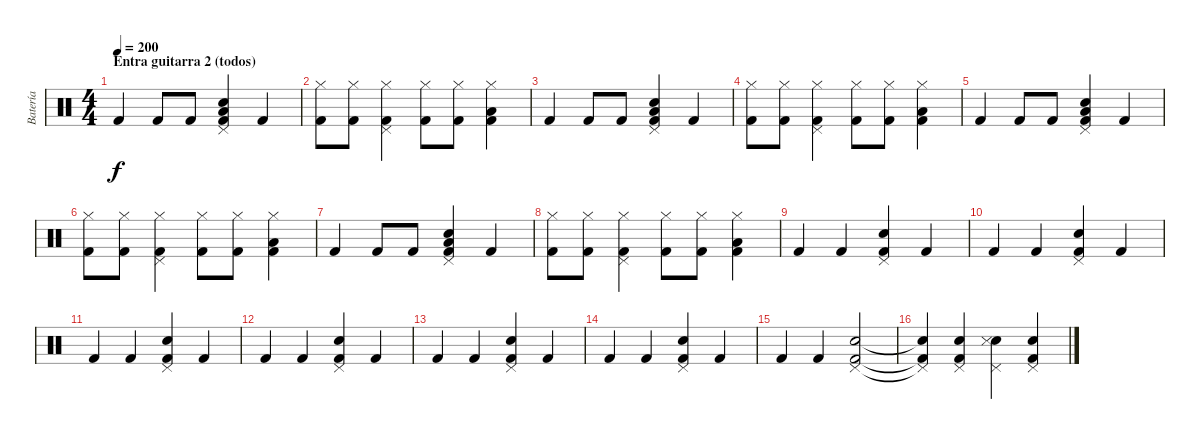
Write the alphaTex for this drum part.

\track ("Batería" "Batería") {instrument percussion}
\staff {score}
\articulation defaults
\ts (4 4)
\section ("" "Entra guitarra 2 (todos)")
\tempo 200
\clef neutral
\ks c "Kick (hit) 2".4{dy f} "Kick (hit) 2".8 "Kick (hit) 2".8
("Low Floor Tom (hit)" "Electric Snare (hit)" "Pedal Hi-Hat (hit)" "Kick (hit) 2").4 "Kick (hit) 2".4 |
("Hi-Hat (closed)" "Kick (hit) 2").8 ("Hi-Hat (closed)" "Kick (hit) 2").8 ("Hi-Hat (closed)" "Pedal Hi-Hat (hit)" "Kick (hit) 2").4 ("Hi-Hat (closed)" "Kick (hit) 2").8 ("Hi-Hat (closed)" "Kick (hit) 2").8 ("Hi-Hat (closed)" "Low Floor Tom (hit)" "Kick (hit) 2").4 |
"Kick (hit) 2".4 "Kick (hit) 2".8 "Kick (hit) 2".8 ("Low Floor Tom (hit)" "Electric Snare (hit)" "Pedal Hi-Hat (hit)" "Kick (hit) 2").4 "Kick (hit) 2".4 |
("Hi-Hat (closed)" "Kick (hit) 2").8 ("Hi-Hat (closed)" "Kick (hit) 2").8 ("Hi-Hat (closed)" "Pedal Hi-Hat (hit)" "Kick (hit) 2").4 ("Hi-Hat (closed)" "Kick (hit) 2").8 ("Hi-Hat (closed)" "Kick (hit) 2").8 ("Hi-Hat (closed)" "Low Floor Tom (hit)" "Kick (hit) 2").4 |
"Kick (hit) 2".4 "Kick (hit) 2".8 "Kick (hit) 2".8 ("Low Floor Tom (hit)" "Electric Snare (hit)" "Pedal Hi-Hat (hit)" "Kick (hit) 2").4 "Kick (hit) 2".4 |
("Hi-Hat (closed)" "Kick (hit) 2").8 ("Hi-Hat (closed)" "Kick (hit) 2").8 ("Hi-Hat (closed)" "Pedal Hi-Hat (hit)" "Kick (hit) 2").4 ("Hi-Hat (closed)" "Kick (hit) 2").8 ("Hi-Hat (closed)" "Kick (hit) 2").8 ("Hi-Hat (closed)" "Low Floor Tom (hit)" "Kick (hit) 2").4 |
"Kick (hit) 2".4 "Kick (hit) 2".8 "Kick (hit) 2".8 ("Low Floor Tom (hit)" "Electric Snare (hit)" "Pedal Hi-Hat (hit)" "Kick (hit) 2").4 "Kick (hit) 2".4 |
("Hi-Hat (closed)" "Kick (hit) 2").8 ("Hi-Hat (closed)" "Kick (hit) 2").8 ("Hi-Hat (closed)" "Pedal Hi-Hat (hit)" "Kick (hit) 2").4 ("Hi-Hat (closed)" "Kick (hit) 2").8 ("Hi-Hat (closed)" "Kick (hit) 2").8 ("Hi-Hat (closed)" "Low Floor Tom (hit)" "Kick (hit) 2").4 |
"Kick (hit) 2".4 "Kick (hit) 2".4 ("Electric Snare (hit)" "Pedal Hi-Hat (hit)" "Kick (hit) 2").4 "Kick (hit) 2".4 |
"Kick (hit) 2".4 "Kick (hit) 2".4 ("Electric Snare (hit)" "Pedal Hi-Hat (hit)" "Kick (hit) 2").4 "Kick (hit) 2".4 |
"Kick (hit) 2".4 "Kick (hit) 2".4 ("Electric Snare (hit)" "Pedal Hi-Hat (hit)" "Kick (hit) 2").4 "Kick (hit) 2".4 |
"Kick (hit) 2".4 "Kick (hit) 2".4 ("Electric Snare (hit)" "Pedal Hi-Hat (hit)" "Kick (hit) 2").4 "Kick (hit) 2".4 |
"Kick (hit) 2".4 "Kick (hit) 2".4 ("Electric Snare (hit)" "Pedal Hi-Hat (hit)" "Kick (hit) 2").4 "Kick (hit) 2".4 |
"Kick (hit) 2".4 "Kick (hit) 2".4 ("Electric Snare (hit)" "Pedal Hi-Hat (hit)" "Kick (hit) 2").4 "Kick (hit) 2".4 |
"Kick (hit) 2".4 "Kick (hit) 2".4 ("Electric Snare (hit)" "Pedal Hi-Hat (hit)" "Kick (hit) 2").2 |
("Electric Snare (hit)"{t} "Pedal Hi-Hat (hit)"{t} "Kick (hit) 2"{t}).4 ("Electric Snare (hit)" "Pedal Hi-Hat (hit)" "Kick (hit) 2").4 ("Electric Snare (hit)" "Pedal Hi-Hat (hit)" "Snare (side stick) 3").4 ("Electric Snare (hit)" "Pedal Hi-Hat (hit)" "Kick (hit) 2").4
